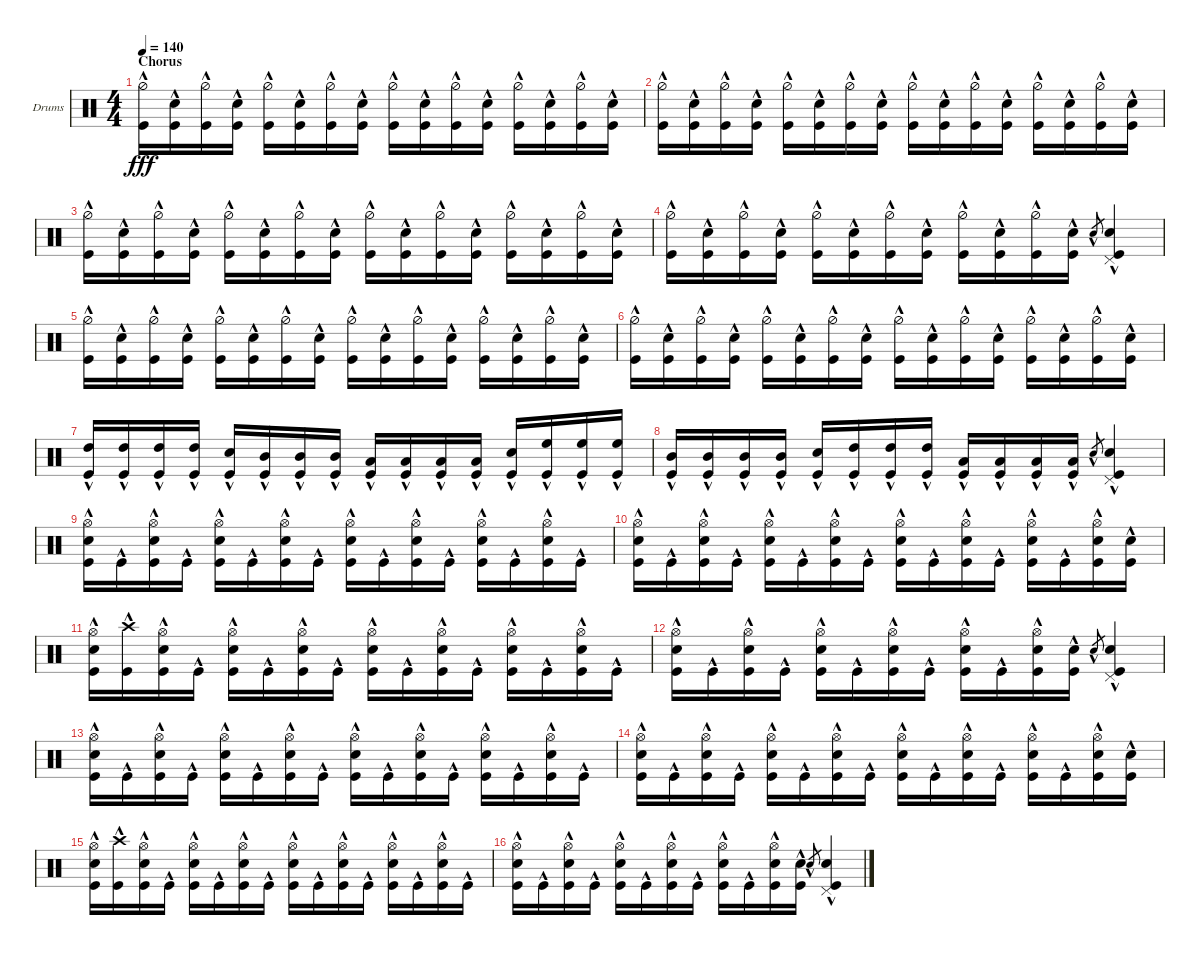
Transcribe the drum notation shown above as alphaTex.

\bracketExtendMode groupsimilarinstruments
\firstSystemTrackNameOrientation horizontal
\otherSystemsTrackNameOrientation horizontal
\track ("BigMc" "Drums") {instrument percussion}
\staff {score}
\articulation defaults
\ts (4 4)
\section ("" "Chorus")
\tempo 140
\clef neutral
\ks c
("Hi-Hat (half)"{hac} "Kick (hit)"{hac}).16{dy fff} ("Snare (hit) 2"{hac} "Kick (hit)"{hac}).16 ("Hi-Hat (half)"{hac} "Kick (hit)"{hac}).16 ("Snare (hit) 2"{hac} "Kick (hit)"{hac}).16 ("Hi-Hat (half)"{hac} "Kick (hit)"{hac}).16 ("Snare (hit) 2"{hac} "Kick (hit)"{hac}).16 ("Hi-Hat (half)"{hac} "Kick (hit)"{hac}).16 ("Snare (hit) 2"{hac} "Kick (hit)"{hac}).16 ("Hi-Hat (half)"{hac} "Kick (hit)"{hac}).16 ("Snare (hit) 2"{hac} "Kick (hit)"{hac}).16 ("Hi-Hat (half)"{hac} "Kick (hit)"{hac}).16 ("Snare (hit) 2"{hac} "Kick (hit)"{hac}).16 ("Hi-Hat (half)"{hac} "Kick (hit)"{hac}).16 ("Snare (hit) 2"{hac} "Kick (hit)"{hac}).16 ("Hi-Hat (half)"{hac} "Kick (hit)"{hac}).16 ("Snare (hit) 2"{hac} "Kick (hit)"{hac}).16 |
("Hi-Hat (half)"{hac} "Kick (hit)"{hac}).16 ("Snare (hit) 2"{hac} "Kick (hit)"{hac}).16 ("Hi-Hat (half)"{hac} "Kick (hit)"{hac}).16 ("Snare (hit) 2"{hac} "Kick (hit)"{hac}).16 ("Hi-Hat (half)"{hac} "Kick (hit)"{hac}).16 ("Snare (hit) 2"{hac} "Kick (hit)"{hac}).16 ("Hi-Hat (half)"{hac} "Kick (hit)"{hac}).16 ("Snare (hit) 2"{hac} "Kick (hit)"{hac}).16 ("Hi-Hat (half)"{hac} "Kick (hit)"{hac}).16 ("Snare (hit) 2"{hac} "Kick (hit)"{hac}).16 ("Hi-Hat (half)"{hac} "Kick (hit)"{hac}).16 ("Snare (hit) 2"{hac} "Kick (hit)"{hac}).16 ("Hi-Hat (half)"{hac} "Kick (hit)"{hac}).16 ("Snare (hit) 2"{hac} "Kick (hit)"{hac}).16 ("Hi-Hat (half)"{hac} "Kick (hit)"{hac}).16 ("Snare (hit) 2"{hac} "Kick (hit)"{hac}).16 |
("Hi-Hat (half)"{hac} "Kick (hit)"{hac}).16 ("Snare (hit) 2"{hac} "Kick (hit)"{hac}).16 ("Hi-Hat (half)"{hac} "Kick (hit)"{hac}).16 ("Snare (hit) 2"{hac} "Kick (hit)"{hac}).16 ("Hi-Hat (half)"{hac} "Kick (hit)"{hac}).16 ("Snare (hit) 2"{hac} "Kick (hit)"{hac}).16 ("Hi-Hat (half)"{hac} "Kick (hit)"{hac}).16 ("Snare (hit) 2"{hac} "Kick (hit)"{hac}).16 ("Hi-Hat (half)"{hac} "Kick (hit)"{hac}).16 ("Snare (hit) 2"{hac} "Kick (hit)"{hac}).16 ("Hi-Hat (half)"{hac} "Kick (hit)"{hac}).16 ("Snare (hit) 2"{hac} "Kick (hit)"{hac}).16 ("Hi-Hat (half)"{hac} "Kick (hit)"{hac}).16 ("Snare (hit) 2"{hac} "Kick (hit)"{hac}).16 ("Hi-Hat (half)"{hac} "Kick (hit)"{hac}).16 ("Snare (hit) 2"{hac} "Kick (hit)"{hac}).16 |
("Hi-Hat (half)"{hac} "Kick (hit)"{hac}).16 ("Snare (hit) 2"{hac} "Kick (hit)"{hac}).16 ("Hi-Hat (half)"{hac} "Kick (hit)"{hac}).16 ("Snare (hit) 2"{hac} "Kick (hit)"{hac}).16 ("Hi-Hat (half)"{hac} "Kick (hit)"{hac}).16 ("Snare (hit) 2"{hac} "Kick (hit)"{hac}).16 ("Hi-Hat (half)"{hac} "Kick (hit)"{hac}).16 ("Snare (hit) 2"{hac} "Kick (hit)"{hac}).16 ("Hi-Hat (half)"{hac} "Kick (hit)"{hac}).16 ("Snare (hit) 2"{hac} "Kick (hit)"{hac}).16 ("Hi-Hat (half)"{hac} "Kick (hit)"{hac}).16 ("Snare (hit) 2"{hac} "Kick (hit)"{hac}).16 "Snare (hit) 2"{hac}.8{gr} ("Snare (hit) 2"{hac} "Pedal Hi-Hat (hit)"{hac} "Kick (hit)"{hac}).4 |
("Hi-Hat (half)"{hac} "Kick (hit)"{hac}).16 ("Snare (hit) 2"{hac} "Kick (hit)"{hac}).16 ("Hi-Hat (half)"{hac} "Kick (hit)"{hac}).16 ("Snare (hit) 2"{hac} "Kick (hit)"{hac}).16 ("Hi-Hat (half)"{hac} "Kick (hit)"{hac}).16 ("Snare (hit) 2"{hac} "Kick (hit)"{hac}).16 ("Hi-Hat (half)"{hac} "Kick (hit)"{hac}).16 ("Snare (hit) 2"{hac} "Kick (hit)"{hac}).16 ("Hi-Hat (half)"{hac} "Kick (hit)"{hac}).16 ("Snare (hit) 2"{hac} "Kick (hit)"{hac}).16 ("Hi-Hat (half)"{hac} "Kick (hit)"{hac}).16 ("Snare (hit) 2"{hac} "Kick (hit)"{hac}).16 ("Hi-Hat (half)"{hac} "Kick (hit)"{hac}).16 ("Snare (hit) 2"{hac} "Kick (hit)"{hac}).16 ("Hi-Hat (half)"{hac} "Kick (hit)"{hac}).16 ("Snare (hit) 2"{hac} "Kick (hit)"{hac}).16 |
("Hi-Hat (half)"{hac} "Kick (hit)"{hac}).16 ("Snare (hit) 2"{hac} "Kick (hit)"{hac}).16 ("Hi-Hat (half)"{hac} "Kick (hit)"{hac}).16 ("Snare (hit) 2"{hac} "Kick (hit)"{hac}).16 ("Hi-Hat (half)"{hac} "Kick (hit)"{hac}).16 ("Snare (hit) 2"{hac} "Kick (hit)"{hac}).16 ("Hi-Hat (half)"{hac} "Kick (hit)"{hac}).16 ("Snare (hit) 2"{hac} "Kick (hit)"{hac}).16 ("Hi-Hat (half)"{hac} "Kick (hit)"{hac}).16 ("Snare (hit) 2"{hac} "Kick (hit)"{hac}).16 ("Hi-Hat (half)"{hac} "Kick (hit)"{hac}).16 ("Snare (hit) 2"{hac} "Kick (hit)"{hac}).16 ("Hi-Hat (half)"{hac} "Kick (hit)"{hac}).16 ("Snare (hit) 2"{hac} "Kick (hit)"{hac}).16 ("Hi-Hat (half)"{hac} "Kick (hit)"{hac}).16 ("Snare (hit) 2"{hac} "Kick (hit)"{hac}).16 |
("Kick (hit)"{hac} "High Tom (hit)"{hac}).16 ("Kick (hit)"{hac} "High Tom (hit)"{hac}).16 ("Kick (hit)"{hac} "High Tom (hit)"{hac}).16 ("Kick (hit)"{hac} "High Tom (hit)"{hac}).16 ("Kick (hit)"{hac} "Snare (hit) 2"{hac}).16 ("Kick (hit)"{hac} "Mid Tom (hit)"{hac}).16 ("Kick (hit)"{hac} "Mid Tom (hit)"{hac}).16 ("Kick (hit)"{hac} "Mid Tom (hit)"{hac}).16 ("Kick (hit)"{hac} "Low Tom (hit)"{hac}).16 ("Kick (hit)"{hac} "Low Tom (hit)"{hac}).16 ("Kick (hit)"{hac} "Low Tom (hit)"{hac}).16 ("Kick (hit)"{hac} "Low Tom (hit)"{hac}).16 ("Kick (hit)"{hac} "Snare (hit) 2"{hac}).16 ("Kick (hit)"{hac} "High Floor Tom (hit)"{hac}).16 ("Kick (hit)"{hac} "High Floor Tom (hit)"{hac}).16 ("Kick (hit)"{hac} "High Floor Tom (hit)"{hac}).16 |
("Kick (hit)"{hac} "Mid Tom (hit)"{hac}).16 ("Kick (hit)"{hac} "Mid Tom (hit)"{hac}).16 ("Kick (hit)"{hac} "Mid Tom (hit)"{hac}).16 ("Kick (hit)"{hac} "Mid Tom (hit)"{hac}).16 ("Kick (hit)"{hac} "Snare (hit) 2"{hac}).16 ("Kick (hit)"{hac} "High Tom (hit)"{hac}).16 ("Kick (hit)"{hac} "High Tom (hit)"{hac}).16 ("Kick (hit)"{hac} "High Tom (hit)"{hac}).16 ("Kick (hit)"{hac} "Low Tom (hit)"{hac}).16 ("Kick (hit)"{hac} "Low Tom (hit)"{hac}).16 ("Kick (hit)"{hac} "Low Tom (hit)"{hac}).16 ("Kick (hit)"{hac} "Low Tom (hit)"{hac}).16 "Snare (hit) 2"{hac}.8{gr} ("Snare (hit) 2"{hac} "Kick (hit)"{hac} "Pedal Hi-Hat (hit)"{hac}).4 |
("Kick (hit)"{hac} "Hi-Hat (open)"{hac} "Snare (hit) 2"{hac}).16 "Kick (hit)"{hac}.16 ("Kick (hit)"{hac} "Hi-Hat (open)"{hac} "Snare (hit) 2"{hac}).16 "Kick (hit)"{hac}.16 ("Kick (hit)"{hac} "Hi-Hat (open)"{hac} "Snare (hit) 2"{hac}).16 "Kick (hit)"{hac}.16 ("Kick (hit)"{hac} "Hi-Hat (open)"{hac} "Snare (hit) 2"{hac}).16 "Kick (hit)"{hac}.16 ("Kick (hit)"{hac} "Hi-Hat (open)"{hac} "Snare (hit) 2"{hac}).16 "Kick (hit)"{hac}.16 ("Kick (hit)"{hac} "Hi-Hat (open)"{hac} "Snare (hit) 2"{hac}).16 "Kick (hit)"{hac}.16 ("Kick (hit)"{hac} "Hi-Hat (open)"{hac} "Snare (hit) 2"{hac}).16 "Kick (hit)"{hac}.16 ("Kick (hit)"{hac} "Hi-Hat (open)"{hac} "Snare (hit) 2"{hac}).16 "Kick (hit)"{hac}.16 |
("Kick (hit)"{hac} "Hi-Hat (open)"{hac} "Snare (hit) 2"{hac}).16 "Kick (hit)"{hac}.16 ("Kick (hit)"{hac} "Hi-Hat (open)"{hac} "Snare (hit) 2"{hac}).16 "Kick (hit)"{hac}.16 ("Kick (hit)"{hac} "Hi-Hat (open)"{hac} "Snare (hit) 2"{hac}).16 "Kick (hit)"{hac}.16 ("Kick (hit)"{hac} "Hi-Hat (open)"{hac} "Snare (hit) 2"{hac}).16 "Kick (hit)"{hac}.16 ("Kick (hit)"{hac} "Hi-Hat (open)"{hac} "Snare (hit) 2"{hac}).16 "Kick (hit)"{hac}.16 ("Kick (hit)"{hac} "Hi-Hat (open)"{hac} "Snare (hit) 2"{hac}).16 "Kick (hit)"{hac}.16 ("Kick (hit)"{hac} "Hi-Hat (open)"{hac} "Snare (hit) 2"{hac}).16 "Kick (hit)"{hac}.16 ("Kick (hit)"{hac} "Hi-Hat (open)"{hac} "Snare (hit) 2"{hac}).16 ("Kick (hit)"{hac} "Snare (hit) 2"{hac}).16 |
("Kick (hit)"{hac} "Hi-Hat (open)"{hac} "Snare (hit) 2"{hac}).16 ("Kick (hit)"{hac} "Crash high (hit)"{hac}).16 ("Kick (hit)"{hac} "Hi-Hat (open)"{hac} "Snare (hit) 2"{hac}).16 "Kick (hit)"{hac}.16 ("Kick (hit)"{hac} "Hi-Hat (open)"{hac} "Snare (hit) 2"{hac}).16 "Kick (hit)"{hac}.16 ("Kick (hit)"{hac} "Hi-Hat (open)"{hac} "Snare (hit) 2"{hac}).16 "Kick (hit)"{hac}.16 ("Kick (hit)"{hac} "Hi-Hat (open)"{hac} "Snare (hit) 2"{hac}).16 "Kick (hit)"{hac}.16 ("Kick (hit)"{hac} "Hi-Hat (open)"{hac} "Snare (hit) 2"{hac}).16 "Kick (hit)"{hac}.16 ("Kick (hit)"{hac} "Hi-Hat (open)"{hac} "Snare (hit) 2"{hac}).16 "Kick (hit)"{hac}.16 ("Kick (hit)"{hac} "Hi-Hat (open)"{hac} "Snare (hit) 2"{hac}).16 "Kick (hit)"{hac}.16 |
("Kick (hit)"{hac} "Hi-Hat (open)"{hac} "Snare (hit) 2"{hac}).16 "Kick (hit)"{hac}.16 ("Kick (hit)"{hac} "Hi-Hat (open)"{hac} "Snare (hit) 2"{hac}).16 "Kick (hit)"{hac}.16 ("Kick (hit)"{hac} "Hi-Hat (open)"{hac} "Snare (hit) 2"{hac}).16 "Kick (hit)"{hac}.16 ("Kick (hit)"{hac} "Hi-Hat (open)"{hac} "Snare (hit) 2"{hac}).16 "Kick (hit)"{hac}.16 ("Kick (hit)"{hac} "Hi-Hat (open)"{hac} "Snare (hit) 2"{hac}).16 "Kick (hit)"{hac}.16 ("Kick (hit)"{hac} "Hi-Hat (open)"{hac} "Snare (hit) 2"{hac}).16 ("Kick (hit)"{hac} "Snare (hit) 2"{hac}).16 "Snare (hit) 2"{hac}.8{gr} ("Snare (hit) 2"{hac} "Pedal Hi-Hat (hit)"{hac} "Kick (hit)"{hac}).4 |
("Kick (hit)"{hac} "Hi-Hat (open)"{hac} "Snare (hit) 2"{hac}).16 "Kick (hit)"{hac}.16 ("Kick (hit)"{hac} "Hi-Hat (open)"{hac} "Snare (hit) 2"{hac}).16 "Kick (hit)"{hac}.16 ("Kick (hit)"{hac} "Hi-Hat (open)"{hac} "Snare (hit) 2"{hac}).16 "Kick (hit)"{hac}.16 ("Kick (hit)"{hac} "Hi-Hat (open)"{hac} "Snare (hit) 2"{hac}).16 "Kick (hit)"{hac}.16 ("Kick (hit)"{hac} "Hi-Hat (open)"{hac} "Snare (hit) 2"{hac}).16 "Kick (hit)"{hac}.16 ("Kick (hit)"{hac} "Hi-Hat (open)"{hac} "Snare (hit) 2"{hac}).16 "Kick (hit)"{hac}.16 ("Kick (hit)"{hac} "Hi-Hat (open)"{hac} "Snare (hit) 2"{hac}).16 "Kick (hit)"{hac}.16 ("Kick (hit)"{hac} "Hi-Hat (open)"{hac} "Snare (hit) 2"{hac}).16 "Kick (hit)"{hac}.16 |
("Kick (hit)"{hac} "Hi-Hat (open)"{hac} "Snare (hit) 2"{hac}).16 "Kick (hit)"{hac}.16 ("Kick (hit)"{hac} "Hi-Hat (open)"{hac} "Snare (hit) 2"{hac}).16 "Kick (hit)"{hac}.16 ("Kick (hit)"{hac} "Hi-Hat (open)"{hac} "Snare (hit) 2"{hac}).16 "Kick (hit)"{hac}.16 ("Kick (hit)"{hac} "Hi-Hat (open)"{hac} "Snare (hit) 2"{hac}).16 "Kick (hit)"{hac}.16 ("Kick (hit)"{hac} "Hi-Hat (open)"{hac} "Snare (hit) 2"{hac}).16 "Kick (hit)"{hac}.16 ("Kick (hit)"{hac} "Hi-Hat (open)"{hac} "Snare (hit) 2"{hac}).16 "Kick (hit)"{hac}.16 ("Kick (hit)"{hac} "Hi-Hat (open)"{hac} "Snare (hit) 2"{hac}).16 "Kick (hit)"{hac}.16 ("Kick (hit)"{hac} "Hi-Hat (open)"{hac} "Snare (hit) 2"{hac}).16 ("Kick (hit)"{hac} "Snare (hit) 2"{hac}).16 |
("Kick (hit)"{hac} "Hi-Hat (open)"{hac} "Snare (hit) 2"{hac}).16 ("Kick (hit)"{hac} "Crash high (hit)"{hac}).16 ("Kick (hit)"{hac} "Hi-Hat (open)"{hac} "Snare (hit) 2"{hac}).16 "Kick (hit)"{hac}.16 ("Kick (hit)"{hac} "Hi-Hat (open)"{hac} "Snare (hit) 2"{hac}).16 "Kick (hit)"{hac}.16 ("Kick (hit)"{hac} "Hi-Hat (open)"{hac} "Snare (hit) 2"{hac}).16 "Kick (hit)"{hac}.16 ("Kick (hit)"{hac} "Hi-Hat (open)"{hac} "Snare (hit) 2"{hac}).16 "Kick (hit)"{hac}.16 ("Kick (hit)"{hac} "Hi-Hat (open)"{hac} "Snare (hit) 2"{hac}).16 "Kick (hit)"{hac}.16 ("Kick (hit)"{hac} "Hi-Hat (open)"{hac} "Snare (hit) 2"{hac}).16 "Kick (hit)"{hac}.16 ("Kick (hit)"{hac} "Hi-Hat (open)"{hac} "Snare (hit) 2"{hac}).16 "Kick (hit)"{hac}.16 |
("Kick (hit)"{hac} "Hi-Hat (open)"{hac} "Snare (hit) 2"{hac}).16 "Kick (hit)"{hac}.16 ("Kick (hit)"{hac} "Hi-Hat (open)"{hac} "Snare (hit) 2"{hac}).16 "Kick (hit)"{hac}.16 ("Kick (hit)"{hac} "Hi-Hat (open)"{hac} "Snare (hit) 2"{hac}).16 "Kick (hit)"{hac}.16 ("Kick (hit)"{hac} "Hi-Hat (open)"{hac} "Snare (hit) 2"{hac}).16 "Kick (hit)"{hac}.16 ("Kick (hit)"{hac} "Hi-Hat (open)"{hac} "Snare (hit) 2"{hac}).16 "Kick (hit)"{hac}.16 ("Kick (hit)"{hac} "Hi-Hat (open)"{hac} "Snare (hit) 2"{hac}).16 ("Kick (hit)"{hac} "Snare (hit) 2"{hac}).16 "Snare (hit) 2"{hac}.8{gr} ("Snare (hit) 2"{hac} "Pedal Hi-Hat (hit)"{hac} "Kick (hit)"{hac}).4
